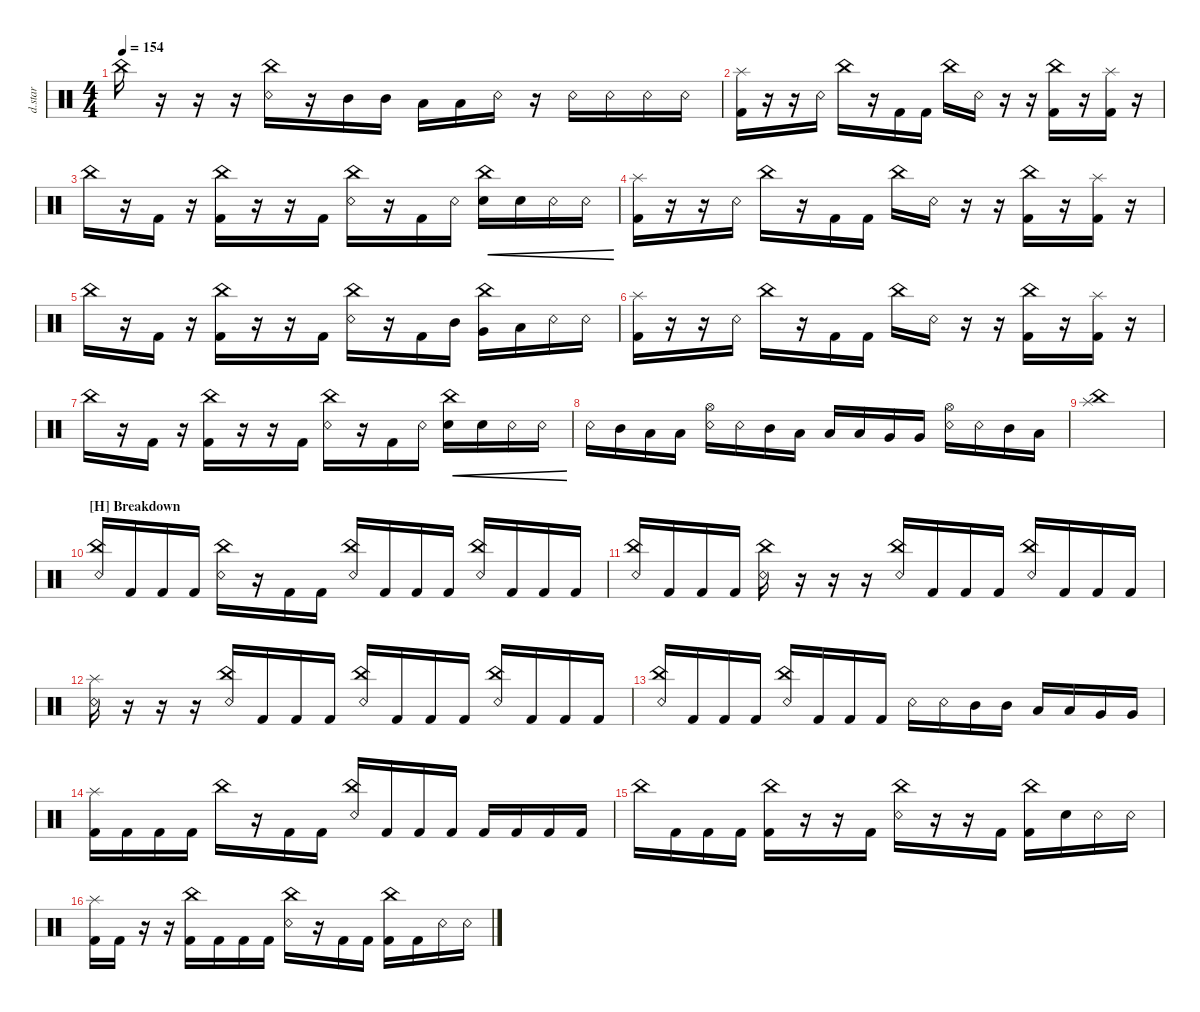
\defaultSystemsLayout 4
\hideDynamics
\bracketExtendMode nobrackets
\otherSystemsTrackNameOrientation horizontal
\track ("Drumkit Star" "d.star") {instrument percussion}
\staff {score}
\articulation defaults
\ts (4 4)
\tempo 154
\clef neutral
\ks c "China (hit)".16{dy ff beam Down}
r.16{beam Down} r.16{beam Down} r.16{beam Down} ("Snare (rim shot)" "China (hit)").16{beam Down} r.16{beam Down} "Mid Tom (hit)".16{beam Down} "Mid Tom (hit)".16{beam Down} "Low Tom (hit)".16{beam Down} "Low Tom (hit)".16{beam Down} "Snare (rim shot)".16{beam Down} r.16{beam Down} "Snare (rim shot)".16{beam Down} "Snare (rim shot)".16{beam Down} "Snare (rim shot)".16{beam Down} "Snare (rim shot)".16{beam Down} |
("Kick (hit) 2" "Splash (hit)").16{beam Down} r.16{beam Down} r.16{beam Down} "Snare (rim shot)".16{beam Down} "China (hit)".16{beam Down} r.16{beam Down} "Kick (hit) 2".16{beam Down} "Kick (hit) 2".16{beam Down} "China (hit)".16{beam Down} "Snare (rim shot)".16{beam Down} r.16{beam Down} r.16{beam Down} ("Kick (hit) 2" "China (hit)").16{beam Down} r.16{beam Down} ("Kick (hit) 2" "Splash (hit)").16{beam Down} r.16{beam Down} |
"China (hit)".16{beam Down} r.16{beam Down} "Kick (hit) 2".16{beam Down} r.16{beam Down} ("Kick (hit) 2" "China (hit)").16{beam Down} r.16{beam Down} r.16{beam Down} "Kick (hit) 2".16{beam Down} ("Snare (rim shot)" "China (hit)").16{beam Down} r.16{beam Down} "Kick (hit) 2".16{beam Down} "Snare (rim shot)".16{beam Down} ("China (hit)" "Snare (hit) 2").16{cre beam Down} "Snare (hit) 2".16{cre beam Down} "Snare (rim shot)".16{cre beam Down} "Snare (rim shot)".16{cre beam Down} |
("Kick (hit) 2" "Splash (hit)").16{beam Down} r.16{beam Down} r.16{beam Down} "Snare (rim shot)".16{beam Down} "China (hit)".16{beam Down} r.16{beam Down} "Kick (hit) 2".16{beam Down} "Kick (hit) 2".16{beam Down} "China (hit)".16{beam Down} "Snare (rim shot)".16{beam Down} r.16{beam Down} r.16{beam Down} ("Kick (hit) 2" "China (hit)").16{beam Down} r.16{beam Down} ("Kick (hit) 2" "Splash (hit)").16{beam Down} r.16{beam Down} |
"China (hit)".16{beam Down} r.16{beam Down} "Kick (hit) 2".16{beam Down} r.16{beam Down} ("Kick (hit) 2" "China (hit)").16{beam Down} r.16{beam Down} r.16{beam Down} "Kick (hit) 2".16{beam Down} ("Snare (rim shot)" "China (hit)").16{beam Down} r.16{beam Down} "Kick (hit) 2".16{beam Down} "Mid Tom (hit)".16{beam Down} ("China (hit)" "Very Low Tom (hit)").16{beam Down} "Low Tom (hit)".16{beam Down} "Snare (rim shot)".16{beam Down} "Snare (rim shot)".16{beam Down} |
("Kick (hit) 2" "Splash (hit)").16{beam Down} r.16{beam Down} r.16{beam Down} "Snare (rim shot)".16{beam Down} "China (hit)".16{beam Down} r.16{beam Down} "Kick (hit) 2".16{beam Down} "Kick (hit) 2".16{beam Down} "China (hit)".16{beam Down} "Snare (rim shot)".16{beam Down} r.16{beam Down} r.16{beam Down} ("Kick (hit) 2" "China (hit)").16{beam Down} r.16{beam Down} ("Kick (hit) 2" "Splash (hit)").16{beam Down} r.16{beam Down} |
"China (hit)".16{beam Down} r.16{beam Down} "Kick (hit) 2".16{beam Down} r.16{beam Down} ("Kick (hit) 2" "China (hit)").16{beam Down} r.16{beam Down} r.16{beam Down} "Kick (hit) 2".16{beam Down} ("Snare (rim shot)" "China (hit)").16{beam Down} r.16{beam Down} "Kick (hit) 2".16{beam Down} "Snare (rim shot)".16{beam Down} ("China (hit)" "Snare (hit) 2").16{cre beam Down} "Snare (hit) 2".16{cre beam Down} "Snare (rim shot)".16{cre beam Down} "Snare (rim shot)".16{cre beam Down} |
"Snare (rim shot)".16{beam Down} "Mid Tom (hit)".16{beam Down} "Low Tom (hit)".16{beam Down} "Low Tom (hit)".16{beam Down} ("Snare (rim shot)" "Hi-Hat (open)").16{beam Down} "Snare (rim shot)".16{beam Down} "Mid Tom (hit)".16{beam Down} "Low Tom (hit)".16{beam Down} "Low Tom (hit)".16{beam Up} "Low Tom (hit)".16{beam Up} "Very Low Tom (hit)".16{beam Up} "Very Low Tom (hit)".16{beam Up} ("Snare (rim shot)" "Hi-Hat (open)").16{beam Down} "Snare (rim shot)".16{beam Down} "Mid Tom (hit)".16{beam Down} "Low Tom (hit)".16{beam Down} |
("Splash (hit)" "China (hit)").1{beam Down} |
\section ("H" "Breakdown")
("Snare (rim shot)" "China (hit)").16{beam Up} "Kick (hit) 2".16{beam Up} "Kick (hit) 2".16{beam Up} "Kick (hit) 2".16{beam Up} ("Snare (rim shot)" "China (hit)").16{beam Down} r.16{beam Down} "Kick (hit) 2".16{beam Down} "Kick (hit) 2".16{beam Down} ("Snare (rim shot)" "China (hit)").16{beam Up} "Kick (hit) 2".16{beam Up} "Kick (hit) 2".16{beam Up} "Kick (hit) 2".16{beam Up} ("Snare (rim shot)" "China (hit)").16{beam Up} "Kick (hit) 2".16{beam Up} "Kick (hit) 2".16{beam Up} "Kick (hit) 2".16{beam Up} |
("Snare (rim shot)" "China (hit)").16{beam Up} "Kick (hit) 2".16{beam Up} "Kick (hit) 2".16{beam Up} "Kick (hit) 2".16{beam Up} ("Snare (rim shot)" "China (hit)").16{beam Down} r.16{beam Down} r.16{beam Down} r.16{beam Down} ("Snare (rim shot)" "China (hit)").16{beam Up} "Kick (hit) 2".16{beam Up} "Kick (hit) 2".16{beam Up} "Kick (hit) 2".16{beam Up} ("Snare (rim shot)" "China (hit)").16{beam Up} "Kick (hit) 2".16{beam Up} "Kick (hit) 2".16{beam Up} "Kick (hit) 2".16{beam Up} |
("Splash (hit)" "Snare (rim shot)").16{beam Down} r.16{beam Down} r.16{beam Down} r.16{beam Down} ("Snare (rim shot)" "China (hit)").16{beam Up} "Kick (hit) 2".16{beam Up} "Kick (hit) 2".16{beam Up} "Kick (hit) 2".16{beam Up} ("China (hit)" "Snare (rim shot)").16{beam Up} "Kick (hit) 2".16{beam Up} "Kick (hit) 2".16{beam Up} "Kick (hit) 2".16{beam Up} ("Snare (rim shot)" "China (hit)").16{beam Up} "Kick (hit) 2".16{beam Up} "Kick (hit) 2".16{beam Up} "Kick (hit) 2".16{beam Up} |
("China (hit)" "Snare (rim shot)").16{beam Up} "Kick (hit) 2".16{beam Up} "Kick (hit) 2".16{beam Up} "Kick (hit) 2".16{beam Up} ("Snare (rim shot)" "China (hit)").16{beam Up} "Kick (hit) 2".16{beam Up} "Kick (hit) 2".16{beam Up} "Kick (hit) 2".16{beam Up} "Snare (rim shot)".16{beam Down} "Snare (rim shot)".16{beam Down} "Mid Tom (hit)".16{beam Down} "Mid Tom (hit)".16{beam Down} "Low Tom (hit)".16{beam Up} "Low Tom (hit)".16{beam Up} "Very Low Tom (hit)".16{beam Up} "Very Low Tom (hit)".16{beam Up} |
("Splash (hit)" "Kick (hit) 2").16{beam Down} "Kick (hit) 2".16{beam Down} "Kick (hit) 2".16{beam Down} "Kick (hit) 2".16{beam Down} "China (hit)".16{beam Down} r.16{beam Down} "Kick (hit) 2".16{beam Down} "Kick (hit) 2".16{beam Down} ("Snare (rim shot)" "China (hit)").16{beam Up} "Kick (hit) 2".16{beam Up} "Kick (hit) 2".16{beam Up} "Kick (hit) 2".16{beam Up} "Kick (hit) 2".16{beam Up} "Kick (hit) 2".16{beam Up} "Kick (hit) 2".16{beam Up} "Kick (hit) 2".16{beam Up} |
"China (hit)".16{beam Down} "Kick (hit) 2".16{beam Down} "Kick (hit) 2".16{beam Down} "Kick (hit) 2".16{beam Down} ("Kick (hit) 2" "China (hit)").16{beam Down} r.16{beam Down} r.16{beam Down} "Kick (hit) 2".16{beam Down} ("Snare (rim shot)" "China (hit)").16{beam Down} r.16{beam Down} r.16{beam Down} "Kick (hit) 2".16{beam Down} ("China (hit)" "Kick (hit) 2").16{beam Down} "Snare (hit) 2".16{beam Down} "Snare (rim shot)".16{beam Down} "Snare (rim shot)".16{beam Down} |
("Kick (hit) 2" "Splash (hit)").16{beam Down} "Kick (hit) 2".16{beam Down} r.16{beam Down} r.16{beam Down} ("Kick (hit) 2" "China (hit)").16{beam Down} "Kick (hit) 2".16{beam Down} "Kick (hit) 2".16{beam Down} "Kick (hit) 2".16{beam Down} ("Snare (rim shot)" "China (hit)").16{beam Down} r.16{beam Down} "Kick (hit) 2".16{beam Down} "Kick (hit) 2".16{beam Down} ("Kick (hit) 2" "China (hit)").16{beam Down} "Kick (hit) 2".16{beam Down} "Snare (rim shot)".16{beam Down} "Snare (rim shot)".16{beam Down}
